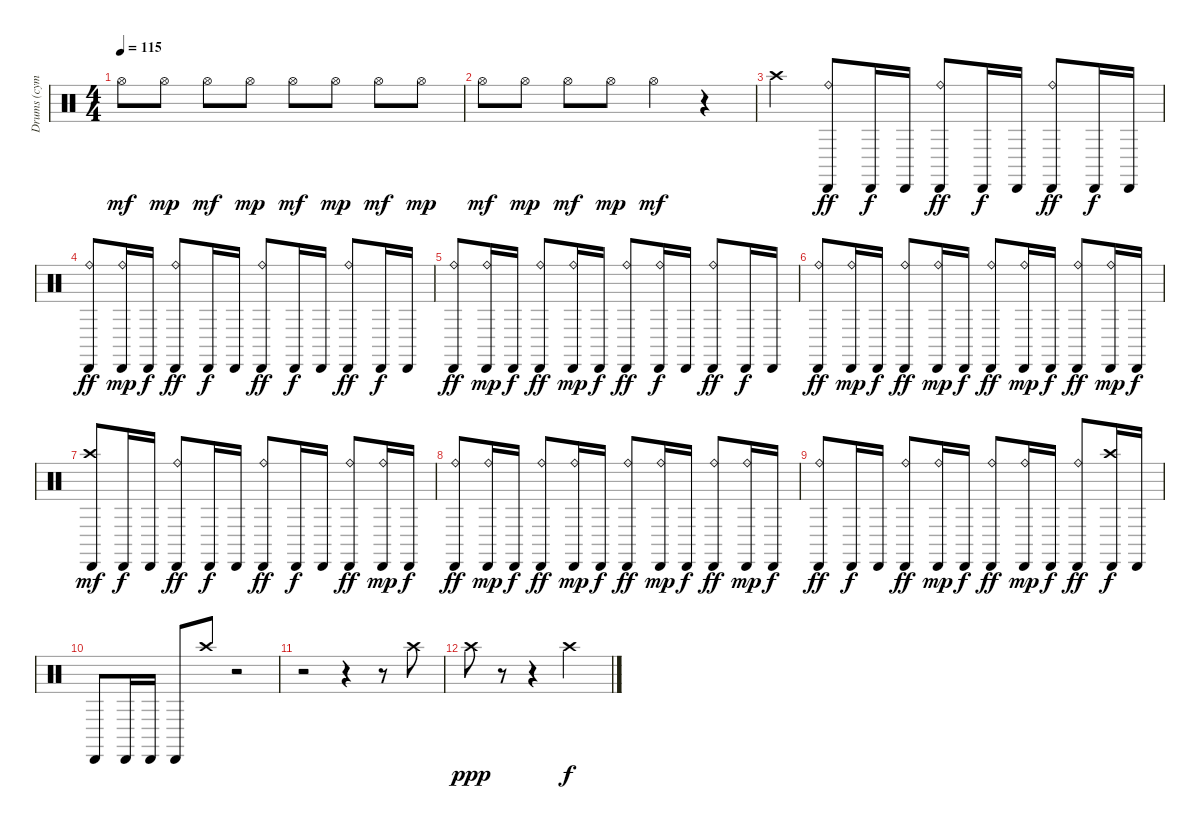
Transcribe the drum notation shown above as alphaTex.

\track ("Drums (cymbals)" "Drums (cym") {instrument percussion}
\staff {score}
\articulation defaults
\ts (4 4)
\tempo 115
\clef neutral
\ks c "Hi-Hat (open)".8{dy mf} "Hi-Hat (open)".8{dy mp} "Hi-Hat (open)".8{dy mf} "Hi-Hat (open)".8{dy mp} "Hi-Hat (open)".8{dy mf} "Hi-Hat (open)".8{dy mp} "Hi-Hat (open)".8{dy mf} "Hi-Hat (open)".8{dy mp}
|
"Hi-Hat (open)".8{dy mf} "Hi-Hat (open)".8{dy mp} "Hi-Hat (open)".8{dy mf} "Hi-Hat (open)".8{dy mp} "Hi-Hat (open)".4{dy mf} r.4 |
"Crash high (hit)".4 ("Ride (bell)" "Cabasa (hit)").8{dy ff} "Cabasa (hit)".16{dy f} "Cabasa (hit)".16 ("Ride (bell)" "Cabasa (hit)").8{dy ff} "Cabasa (hit)".16{dy f} "Cabasa (hit)".16 ("Ride (bell)" "Cabasa (hit)").8{dy ff} "Cabasa (hit)".16{dy f} "Cabasa (hit)".16 |
("Ride (bell)" "Cabasa (hit)").8{dy ff} ("Ride (bell)" "Cabasa (hit)").16{dy mp} "Cabasa (hit)".16{dy f} ("Ride (bell)" "Cabasa (hit)").8{dy ff} "Cabasa (hit)".16{dy f} "Cabasa (hit)".16 ("Ride (bell)" "Cabasa (hit)").8{dy ff} "Cabasa (hit)".16{dy f} "Cabasa (hit)".16 ("Ride (bell)" "Cabasa (hit)").8{dy ff} "Cabasa (hit)".16{dy f} "Cabasa (hit)".16 |
("Ride (bell)" "Cabasa (hit)").8{dy ff} ("Ride (bell)" "Cabasa (hit)").16{dy mp} "Cabasa (hit)".16{dy f} ("Ride (bell)" "Cabasa (hit)").8{dy ff} ("Ride (bell)" "Cabasa (hit)").16{dy mp} "Cabasa (hit)".16{dy f} ("Ride (bell)" "Cabasa (hit)").8{dy ff} ("Ride (bell)" "Cabasa (hit)").16{dy f} "Cabasa (hit)".16 ("Ride (bell)" "Cabasa (hit)").8{dy ff} "Cabasa (hit)".16{dy f} "Cabasa (hit)".16 |
("Ride (bell)" "Cabasa (hit)").8{dy ff} ("Ride (bell)" "Cabasa (hit)").16{dy mp} "Cabasa (hit)".16{dy f} ("Ride (bell)" "Cabasa (hit)").8{dy ff} ("Ride (bell)" "Cabasa (hit)").16{dy mp} "Cabasa (hit)".16{dy f} ("Ride (bell)" "Cabasa (hit)").8{dy ff} ("Ride (bell)" "Cabasa (hit)").16{dy mp} "Cabasa (hit)".16{dy f} ("Ride (bell)" "Cabasa (hit)").8{dy ff} ("Ride (bell)" "Cabasa (hit)").16{dy mp} "Cabasa (hit)".16{dy f} |
("Crash high (hit)" "Cabasa (hit)").8{dy mf} "Cabasa (hit)".16{dy f} "Cabasa (hit)".16 ("Ride (bell)" "Cabasa (hit)").8{dy ff} "Cabasa (hit)".16{dy f} "Cabasa (hit)".16 ("Ride (bell)" "Cabasa (hit)").8{dy ff} "Cabasa (hit)".16{dy f} "Cabasa (hit)".16 ("Ride (bell)" "Cabasa (hit)").8{dy ff} ("Ride (bell)" "Cabasa (hit)").16{dy mp} "Cabasa (hit)".16{dy f} |
("Ride (bell)" "Cabasa (hit)").8{dy ff} ("Ride (bell)" "Cabasa (hit)").16{dy mp} "Cabasa (hit)".16{dy f} ("Ride (bell)" "Cabasa (hit)").8{dy ff} ("Ride (bell)" "Cabasa (hit)").16{dy mp} "Cabasa (hit)".16{dy f} ("Ride (bell)" "Cabasa (hit)").8{dy ff} ("Ride (bell)" "Cabasa (hit)").16{dy mp} "Cabasa (hit)".16{dy f} ("Ride (bell)" "Cabasa (hit)").8{dy ff} ("Ride (bell)" "Cabasa (hit)").16{dy mp} "Cabasa (hit)".16{dy f} |
("Ride (bell)" "Cabasa (hit)").8{dy ff} "Cabasa (hit)".16{dy f} "Cabasa (hit)".16 ("Ride (bell)" "Cabasa (hit)").8{dy ff} ("Ride (bell)" "Cabasa (hit)").16{dy mp} "Cabasa (hit)".16{dy f} ("Ride (bell)" "Cabasa (hit)").8{dy ff} ("Ride (bell)" "Cabasa (hit)").16{dy mp} "Cabasa (hit)".16{dy f} ("Ride (bell)" "Cabasa (hit)").8{dy ff} ("Crash high (hit)" "Cabasa (hit)").16{dy f} "Cabasa (hit)".16 |
"Cabasa (hit)".8 "Cabasa (hit)".16 "Cabasa (hit)".16 "Cabasa (hit)".8 "Crash high (hit)".8 r.2 |
r.2 r.4 r.8 "Crash high (hit)".8{volume 16} |
"Crash high (hit)".8{dy ppp volume 0} r.8{volume 16} r.4{volume 16} "Crash high (hit)".2{dy f}
